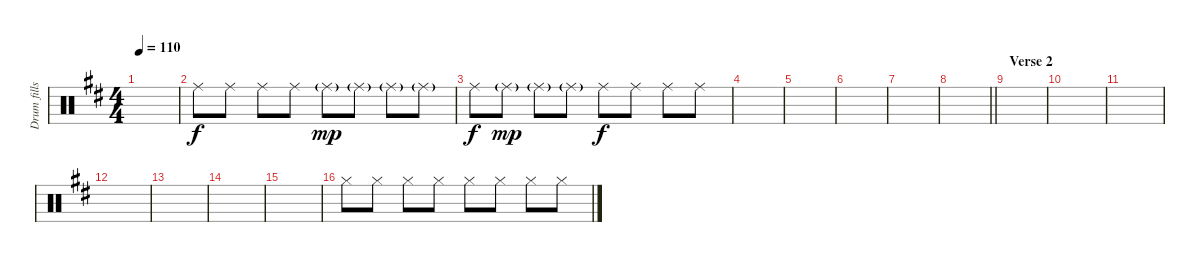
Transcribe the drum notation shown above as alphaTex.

\track ("Drum fills" "Drum fills") {instrument percussion}
\staff {score}
\articulation defaults
\ts (4 4)
\tempo 110
\clef neutral
\ks d
|
"Ride (middle)".8 "Ride (middle)".8 "Ride (middle)".8 "Ride (middle)".8 "Ride (middle)"{g}.8{dy mp} "Ride (middle)"{g}.8 "Ride (middle)"{g}.8 "Ride (middle)"{g}.8 |
"Ride (middle)".8{dy f} "Ride (middle)"{g}.8{dy mp} "Ride (middle)"{g}.8 "Ride (middle)"{g}.8 "Ride (middle)".8{dy f} "Ride (middle)".8 "Ride (middle)".8 "Ride (middle)".8 |
|
|
|
|
\barLineRight lightlight
|
\section ("" "Verse 2")
|
|
|
|
|
|
|
"Hi-Hat (closed)".8 "Hi-Hat (closed)".8 "Hi-Hat (closed)".8 "Hi-Hat (closed)".8 "Hi-Hat (closed)".8 "Hi-Hat (closed)".8 "Hi-Hat (closed)".8 "Hi-Hat (closed)".8
